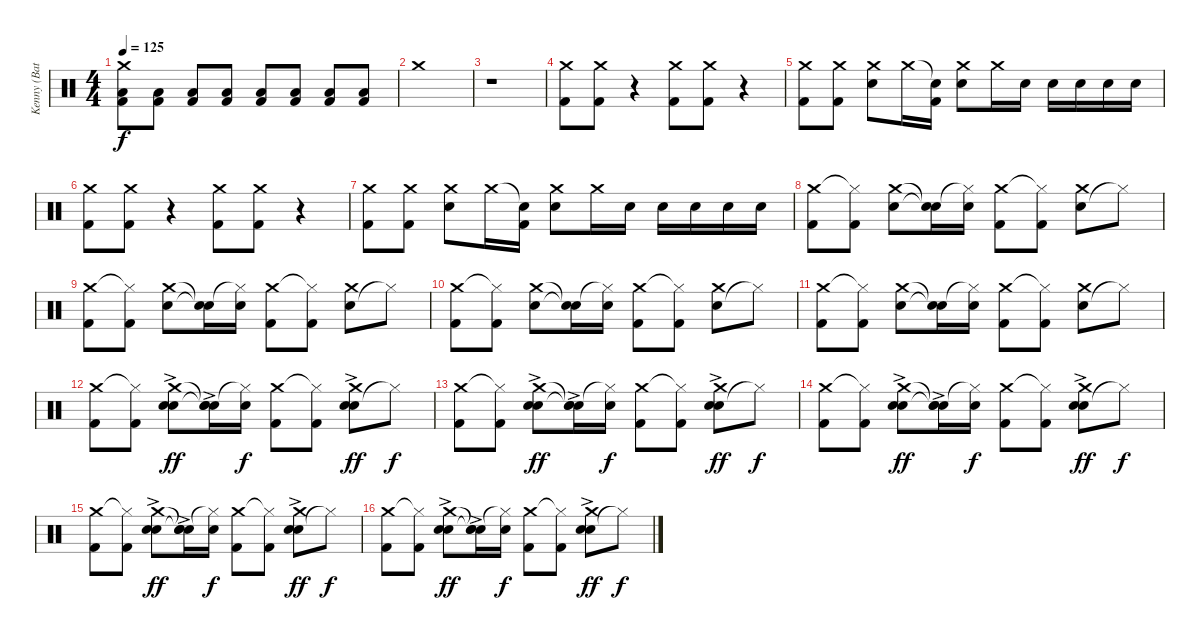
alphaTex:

\track ("Kenny (Batterie)" "Kenny (Bat") {instrument percussion}
\staff {score}
\articulation defaults
\ts (4 4)
\tempo 125
\clef neutral
\ks c
("Kick (hit) 2" "Low Floor Tom (hit)" "Crash medium (hit)").8{dy f} ("Kick (hit) 2" "Low Floor Tom (hit)").8 ("Kick (hit) 2" "Low Floor Tom (hit)").8 ("Kick (hit) 2" "Low Floor Tom (hit)").8 ("Kick (hit) 2" "Low Floor Tom (hit)").8 ("Kick (hit) 2" "Low Floor Tom (hit)").8 ("Kick (hit) 2" "Low Floor Tom (hit)").8 ("Kick (hit) 2" "Low Floor Tom (hit)").8 |
"Crash medium (hit)".1 |
r.1 |
("Crash medium (hit)" "Kick (hit) 2").8 ("Crash medium (hit)" "Kick (hit) 2").8 r.4 ("Kick (hit) 2" "Crash medium (hit)").8 ("Kick (hit) 2" "Crash medium (hit)").8 r.4 |
("Crash medium (hit)" "Kick (hit) 2").8 ("Crash medium (hit)" "Kick (hit) 2").8 ("Crash medium (hit)" "Electric Snare (hit)").8 "Crash medium (hit)".16 ("Snare (hit)"{t} "Kick (hit) 2").16 ("Crash medium (hit)" "Electric Snare (hit)").8 "Crash medium (hit)".16 "Electric Snare (hit)".16 "Electric Snare (hit)".16 "Electric Snare (hit)".16 "Electric Snare (hit)".16 "Electric Snare (hit)".16 |
("Crash medium (hit)" "Kick (hit) 2").8 ("Crash medium (hit)" "Kick (hit) 2").8 r.4 ("Kick (hit) 2" "Crash medium (hit)").8 ("Kick (hit) 2" "Crash medium (hit)").8 r.4 |
("Crash medium (hit)" "Kick (hit) 2").8 ("Crash medium (hit)" "Kick (hit) 2").8 ("Crash medium (hit)" "Electric Snare (hit)").8 "Crash medium (hit)".16 ("Snare (hit)"{t} "Kick (hit) 2").16 ("Crash medium (hit)" "Electric Snare (hit)").8 "Crash medium (hit)".16 "Electric Snare (hit)".16 "Electric Snare (hit)".16 "Electric Snare (hit)".16 "Electric Snare (hit)".16 "Electric Snare (hit)".16 |
("Kick (hit) 2" "Crash medium (hit)").8 ("Kick (hit) 2" "Hi-Hat (closed)"{t}).8 ("Electric Snare (hit)" "Crash medium (hit)").8 ("Snare (hit)"{t} "Snare (hit)"{t}).16 ("Electric Snare (hit)" "Hi-Hat (closed)"{t}).16 ("Kick (hit) 2" "Crash medium (hit)").8 ("Kick (hit) 2" "Hi-Hat (closed)"{t}).8 ("Electric Snare (hit)" "Crash medium (hit)").8 "Hi-Hat (closed)"{t}.8 |
("Kick (hit) 2" "Crash medium (hit)").8 ("Kick (hit) 2" "Hi-Hat (closed)"{t}).8 ("Electric Snare (hit)" "Crash medium (hit)").8 ("Snare (hit)"{t} "Snare (hit)"{t}).16 ("Electric Snare (hit)" "Hi-Hat (closed)"{t}).16 ("Kick (hit) 2" "Crash medium (hit)").8 ("Kick (hit) 2" "Hi-Hat (closed)"{t}).8 ("Electric Snare (hit)" "Crash medium (hit)").8 "Hi-Hat (closed)"{t}.8 |
("Kick (hit) 2" "Crash medium (hit)").8 ("Kick (hit) 2" "Hi-Hat (closed)"{t}).8 ("Electric Snare (hit)" "Crash medium (hit)").8 ("Snare (hit)"{t} "Snare (hit)"{t}).16 ("Electric Snare (hit)" "Hi-Hat (closed)"{t}).16 ("Kick (hit) 2" "Crash medium (hit)").8 ("Kick (hit) 2" "Hi-Hat (closed)"{t}).8 ("Electric Snare (hit)" "Crash medium (hit)").8 "Hi-Hat (closed)"{t}.8 |
("Kick (hit) 2" "Crash medium (hit)").8 ("Kick (hit) 2" "Hi-Hat (closed)"{t}).8 ("Electric Snare (hit)" "Crash medium (hit)").8 ("Snare (hit)"{t} "Snare (hit)"{t}).16 ("Electric Snare (hit)" "Hi-Hat (closed)"{t}).16 ("Kick (hit) 2" "Crash medium (hit)").8 ("Kick (hit) 2" "Hi-Hat (closed)"{t}).8 ("Electric Snare (hit)" "Crash medium (hit)").8 "Hi-Hat (closed)"{t}.8 |
("Kick (hit) 2" "Crash medium (hit)").8 ("Kick (hit) 2" "Hi-Hat (closed)"{t}).8 ("Hand Clap (hit)"{ac} "Electric Snare (hit)" "Crash medium (hit)").8{dy ff} ("Hand Clap (hit)"{ac} "Snare (hit)"{t} "Snare (hit)"{t}).16 ("Electric Snare (hit)" "Hi-Hat (closed)"{t}).16{dy f} ("Kick (hit) 2" "Crash medium (hit)").8 ("Kick (hit) 2" "Hi-Hat (closed)"{t}).8 ("Hand Clap (hit)"{ac} "Electric Snare (hit)" "Crash medium (hit)").8{dy ff} "Hi-Hat (closed)"{t}.8{dy f} |
("Kick (hit) 2" "Crash medium (hit)").8 ("Kick (hit) 2" "Hi-Hat (closed)"{t}).8 ("Hand Clap (hit)"{ac} "Electric Snare (hit)" "Crash medium (hit)").8{dy ff} ("Hand Clap (hit)"{ac} "Snare (hit)"{t} "Snare (hit)"{t}).16 ("Electric Snare (hit)" "Hi-Hat (closed)"{t}).16{dy f} ("Kick (hit) 2" "Crash medium (hit)").8 ("Kick (hit) 2" "Hi-Hat (closed)"{t}).8 ("Hand Clap (hit)"{ac} "Electric Snare (hit)" "Crash medium (hit)").8{dy ff} "Hi-Hat (closed)"{t}.8{dy f} |
("Kick (hit) 2" "Crash medium (hit)").8 ("Kick (hit) 2" "Hi-Hat (closed)"{t}).8 ("Hand Clap (hit)"{ac} "Electric Snare (hit)" "Crash medium (hit)").8{dy ff} ("Hand Clap (hit)"{ac} "Snare (hit)"{t} "Snare (hit)"{t}).16 ("Electric Snare (hit)" "Hi-Hat (closed)"{t}).16{dy f} ("Kick (hit) 2" "Crash medium (hit)").8 ("Kick (hit) 2" "Hi-Hat (closed)"{t}).8 ("Hand Clap (hit)"{ac} "Electric Snare (hit)" "Crash medium (hit)").8{dy ff} "Hi-Hat (closed)"{t}.8{dy f} |
("Kick (hit) 2" "Crash medium (hit)").8 ("Kick (hit) 2" "Hi-Hat (closed)"{t}).8 ("Hand Clap (hit)"{ac} "Electric Snare (hit)" "Crash medium (hit)").8{dy ff} ("Hand Clap (hit)"{ac} "Snare (hit)"{t} "Snare (hit)"{t}).16 ("Electric Snare (hit)" "Hi-Hat (closed)"{t}).16{dy f} ("Kick (hit) 2" "Crash medium (hit)").8 ("Kick (hit) 2" "Hi-Hat (closed)"{t}).8 ("Hand Clap (hit)"{ac} "Electric Snare (hit)" "Crash medium (hit)").8{dy ff} "Hi-Hat (closed)"{t}.8{dy f} |
("Kick (hit) 2" "Crash medium (hit)").8 ("Kick (hit) 2" "Hi-Hat (closed)"{t}).8 ("Hand Clap (hit)"{ac} "Electric Snare (hit)" "Crash medium (hit)").8{dy ff} ("Hand Clap (hit)"{ac} "Snare (hit)"{t} "Snare (hit)"{t}).16 ("Electric Snare (hit)" "Hi-Hat (closed)"{t}).16{dy f} ("Kick (hit) 2" "Crash medium (hit)").8 ("Kick (hit) 2" "Hi-Hat (closed)"{t}).8 ("Hand Clap (hit)"{ac} "Electric Snare (hit)" "Crash medium (hit)").8{dy ff} "Hi-Hat (closed)"{t}.8{dy f}
